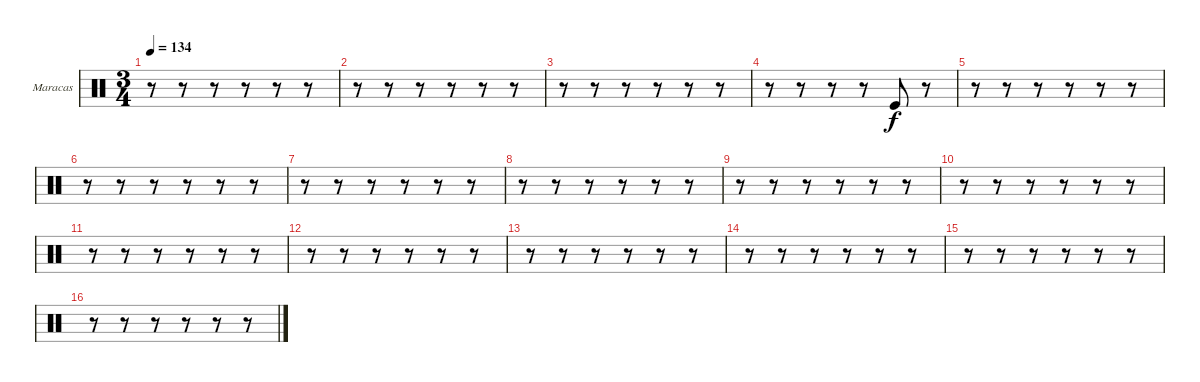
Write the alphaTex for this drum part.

\bracketExtendMode groupsimilarinstruments
\firstSystemTrackNameOrientation horizontal
\otherSystemsTrackNameOrientation horizontal
\track ("Maracas" "Maracas") {instrument percussion}
\staff {score}
\articulation defaults
\ts (3 4)
\tempo 134
\clef neutral
\ks c
r.8{dy f} r.8 r.8 r.8 r.8 r.8 |
r.8 r.8 r.8 r.8 r.8 r.8 |
r.8 r.8 r.8 r.8 r.8 r.8 |
r.8 r.8 r.8 r.8 "Kick (hit)".8 r.8 |
r.8 r.8 r.8 r.8 r.8 r.8 |
r.8 r.8 r.8 r.8 r.8 r.8 |
r.8 r.8 r.8 r.8 r.8 r.8 |
r.8 r.8 r.8 r.8 r.8 r.8 |
r.8 r.8 r.8 r.8 r.8 r.8 |
r.8 r.8 r.8 r.8 r.8 r.8 |
r.8 r.8 r.8 r.8 r.8 r.8 |
r.8 r.8 r.8 r.8 r.8 r.8 |
r.8 r.8 r.8 r.8 r.8 r.8 |
r.8 r.8 r.8 r.8 r.8 r.8 |
r.8 r.8 r.8 r.8 r.8 r.8 |
r.8 r.8 r.8 r.8 r.8 r.8
